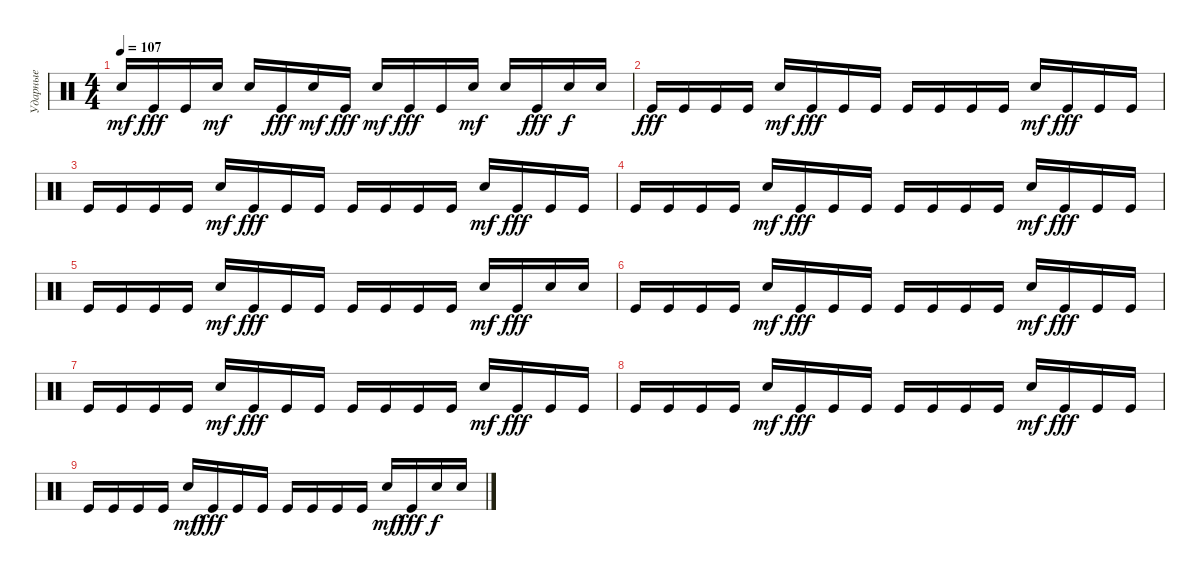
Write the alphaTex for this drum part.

\track ("Ударные" "Ударные") {instrument percussion}
\staff {score}
\articulation defaults
\ts (4 4)
\tempo 107
\clef neutral
\ks c "Electric Snare (hit)".16{dy mf} "Kick (hit)".16{dy fff} "Kick (hit)".16 "Electric Snare (hit)".16{dy mf} "Electric Snare (hit)".16 "Kick (hit)".16{dy fff} "Electric Snare (hit)".16{dy mf} "Kick (hit)".16{dy fff} "Electric Snare (hit)".16{dy mf} "Kick (hit)".16{dy fff} "Kick (hit)".16 "Electric Snare (hit)".16{dy mf} "Electric Snare (hit)".16 "Kick (hit)".16{dy fff} "Electric Snare (hit)".16{dy f} "Electric Snare (hit)".16
|
"Kick (hit)".16{dy fff} "Kick (hit)".16 "Kick (hit)".16 "Kick (hit)".16 "Electric Snare (hit)".16{dy mf} "Kick (hit)".16{dy fff} "Kick (hit)".16 "Kick (hit)".16 "Kick (hit)".16 "Kick (hit)".16 "Kick (hit)".16 "Kick (hit)".16 "Electric Snare (hit)".16{dy mf} "Kick (hit)".16{dy fff} "Kick (hit)".16 "Kick (hit)".16 |
"Kick (hit)".16 "Kick (hit)".16 "Kick (hit)".16 "Kick (hit)".16 "Electric Snare (hit)".16{dy mf} "Kick (hit)".16{dy fff} "Kick (hit)".16 "Kick (hit)".16 "Kick (hit)".16 "Kick (hit)".16 "Kick (hit)".16 "Kick (hit)".16 "Electric Snare (hit)".16{dy mf} "Kick (hit)".16{dy fff} "Kick (hit)".16 "Kick (hit)".16 |
"Kick (hit)".16 "Kick (hit)".16 "Kick (hit)".16 "Kick (hit)".16 "Electric Snare (hit)".16{dy mf} "Kick (hit)".16{dy fff} "Kick (hit)".16 "Kick (hit)".16 "Kick (hit)".16 "Kick (hit)".16 "Kick (hit)".16 "Kick (hit)".16 "Electric Snare (hit)".16{dy mf} "Kick (hit)".16{dy fff} "Kick (hit)".16 "Kick (hit)".16 |
"Kick (hit)".16 "Kick (hit)".16 "Kick (hit)".16 "Kick (hit)".16 "Electric Snare (hit)".16{dy mf} "Kick (hit)".16{dy fff} "Kick (hit)".16 "Kick (hit)".16 "Kick (hit)".16 "Kick (hit)".16 "Kick (hit)".16 "Kick (hit)".16 "Electric Snare (hit)".16{dy mf} "Kick (hit)".16{dy fff} "Electric Snare (hit)".16 "Electric Snare (hit)".16 |
"Kick (hit)".16 "Kick (hit)".16 "Kick (hit)".16 "Kick (hit)".16 "Electric Snare (hit)".16{dy mf} "Kick (hit)".16{dy fff} "Kick (hit)".16 "Kick (hit)".16 "Kick (hit)".16 "Kick (hit)".16 "Kick (hit)".16 "Kick (hit)".16 "Electric Snare (hit)".16{dy mf} "Kick (hit)".16{dy fff} "Kick (hit)".16 "Kick (hit)".16 |
"Kick (hit)".16 "Kick (hit)".16 "Kick (hit)".16 "Kick (hit)".16 "Electric Snare (hit)".16{dy mf} "Kick (hit)".16{dy fff} "Kick (hit)".16 "Kick (hit)".16 "Kick (hit)".16 "Kick (hit)".16 "Kick (hit)".16 "Kick (hit)".16 "Electric Snare (hit)".16{dy mf} "Kick (hit)".16{dy fff} "Kick (hit)".16 "Kick (hit)".16 |
"Kick (hit)".16 "Kick (hit)".16 "Kick (hit)".16 "Kick (hit)".16 "Electric Snare (hit)".16{dy mf} "Kick (hit)".16{dy fff} "Kick (hit)".16 "Kick (hit)".16 "Kick (hit)".16 "Kick (hit)".16 "Kick (hit)".16 "Kick (hit)".16 "Electric Snare (hit)".16{dy mf} "Kick (hit)".16{dy fff} "Kick (hit)".16 "Kick (hit)".16 |
"Kick (hit)".16 "Kick (hit)".16 "Kick (hit)".16 "Kick (hit)".16 "Electric Snare (hit)".16{dy mf} "Kick (hit)".16{dy fff} "Kick (hit)".16 "Kick (hit)".16 "Kick (hit)".16 "Kick (hit)".16 "Kick (hit)".16 "Kick (hit)".16 "Electric Snare (hit)".16{dy mf} "Kick (hit)".16{dy fff} "Electric Snare (hit)".16{dy f} "Electric Snare (hit)".16
